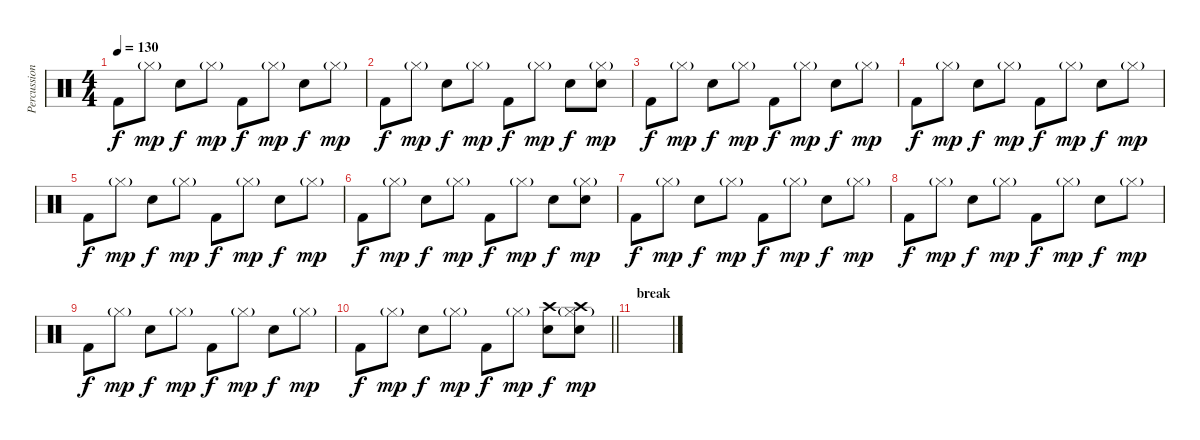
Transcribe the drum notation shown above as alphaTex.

\track ("Percussion" "Percussion") {instrument percussion}
\staff {score}
\articulation defaults
\ts (4 4)
\tempo 130
\clef neutral
\ks c "Kick (hit) 2".8{dy f} "Hi-Hat (closed)"{g}.8{dy mp} "Electric Snare (hit)".8{dy f} "Hi-Hat (closed)"{g}.8{dy mp} "Kick (hit) 2".8{dy f} "Hi-Hat (closed)"{g}.8{dy mp} "Electric Snare (hit)".8{dy f} "Hi-Hat (closed)"{g}.8{dy mp}
|
"Kick (hit) 2".8{dy f} "Hi-Hat (closed)"{g}.8{dy mp} "Electric Snare (hit)".8{dy f} "Hi-Hat (closed)"{g}.8{dy mp} "Kick (hit) 2".8{dy f} "Hi-Hat (closed)"{g}.8{dy mp} "Electric Snare (hit)".8{dy f} ("Hi-Hat (closed)"{g} "Electric Snare (hit)").8{dy mp} |
"Kick (hit) 2".8{dy f} "Hi-Hat (closed)"{g}.8{dy mp} "Electric Snare (hit)".8{dy f} "Hi-Hat (closed)"{g}.8{dy mp} "Kick (hit) 2".8{dy f} "Hi-Hat (closed)"{g}.8{dy mp} "Electric Snare (hit)".8{dy f} "Hi-Hat (closed)"{g}.8{dy mp} |
"Kick (hit) 2".8{dy f} "Hi-Hat (closed)"{g}.8{dy mp} "Electric Snare (hit)".8{dy f} "Hi-Hat (closed)"{g}.8{dy mp} "Kick (hit) 2".8{dy f} "Hi-Hat (closed)"{g}.8{dy mp} "Electric Snare (hit)".8{dy f} "Hi-Hat (closed)"{g}.8{dy mp} |
"Kick (hit) 2".8{dy f} "Hi-Hat (closed)"{g}.8{dy mp} "Electric Snare (hit)".8{dy f} "Hi-Hat (closed)"{g}.8{dy mp} "Kick (hit) 2".8{dy f} "Hi-Hat (closed)"{g}.8{dy mp} "Electric Snare (hit)".8{dy f} "Hi-Hat (closed)"{g}.8{dy mp} |
"Kick (hit) 2".8{dy f} "Hi-Hat (closed)"{g}.8{dy mp} "Electric Snare (hit)".8{dy f} "Hi-Hat (closed)"{g}.8{dy mp} "Kick (hit) 2".8{dy f} "Hi-Hat (closed)"{g}.8{dy mp} "Electric Snare (hit)".8{dy f} ("Hi-Hat (closed)"{g} "Electric Snare (hit)").8{dy mp} |
"Kick (hit) 2".8{dy f} "Hi-Hat (closed)"{g}.8{dy mp} "Electric Snare (hit)".8{dy f} "Hi-Hat (closed)"{g}.8{dy mp} "Kick (hit) 2".8{dy f} "Hi-Hat (closed)"{g}.8{dy mp} "Electric Snare (hit)".8{dy f} "Hi-Hat (closed)"{g}.8{dy mp} |
"Kick (hit) 2".8{dy f} "Hi-Hat (closed)"{g}.8{dy mp} "Electric Snare (hit)".8{dy f} "Hi-Hat (closed)"{g}.8{dy mp} "Kick (hit) 2".8{dy f} "Hi-Hat (closed)"{g}.8{dy mp} "Electric Snare (hit)".8{dy f} "Hi-Hat (closed)"{g}.8{dy mp} |
"Kick (hit) 2".8{dy f} "Hi-Hat (closed)"{g}.8{dy mp} "Electric Snare (hit)".8{dy f} "Hi-Hat (closed)"{g}.8{dy mp} "Kick (hit) 2".8{dy f} "Hi-Hat (closed)"{g}.8{dy mp} "Electric Snare (hit)".8{dy f} "Hi-Hat (closed)"{g}.8{dy mp} |
\barLineRight lightlight "Kick (hit) 2".8{dy f} "Hi-Hat (closed)"{g}.8{dy mp} "Electric Snare (hit)".8{dy f} "Hi-Hat (closed)"{g}.8{dy mp} "Kick (hit) 2".8{dy f} "Hi-Hat (closed)"{g}.8{dy mp}
("Crash high (hit)" "Electric Snare (hit)").8{dy f} ("Crash high (hit)" "Hi-Hat (closed)"{g} "Electric Snare (hit)").8{dy mp} |
\section ("" "break")
